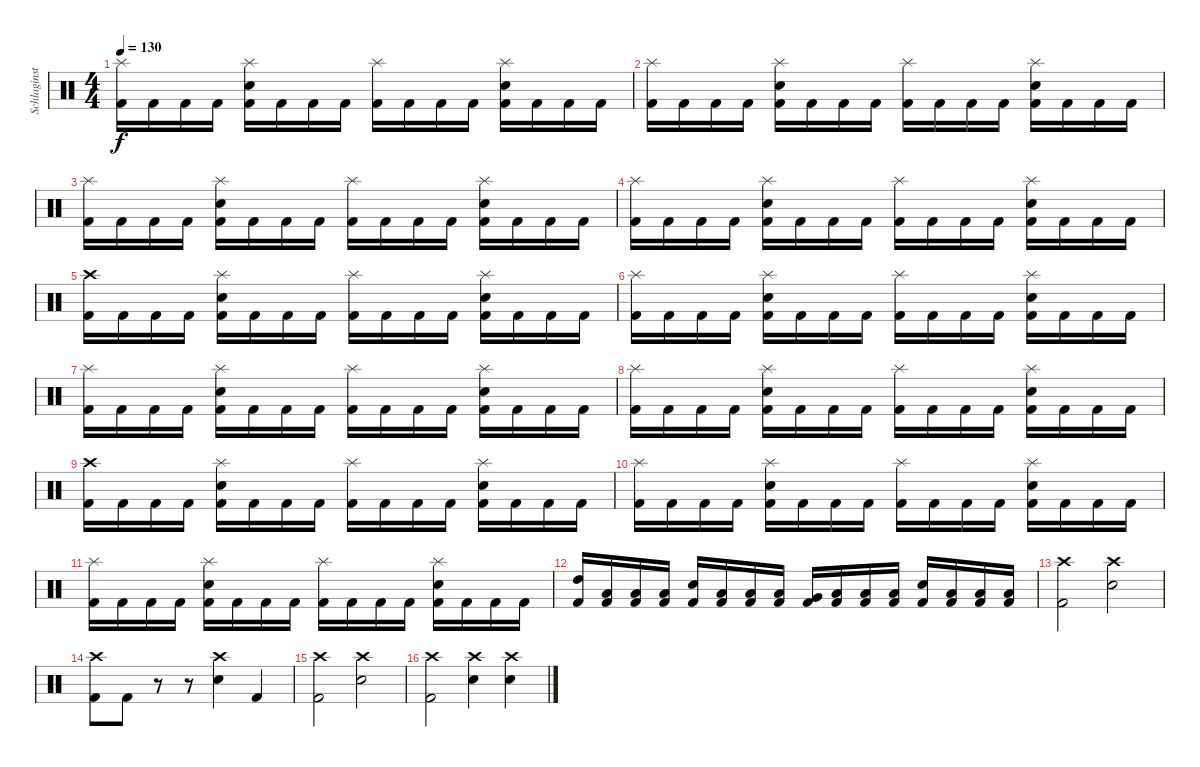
\track ("Schlaginstrumente - Auswahl" "Schlaginst") {instrument percussion}
\staff {score}
\articulation defaults
\ts (4 4)
\tempo 130
\clef neutral
\ks c
("Splash (hit)" "Kick (hit) 2").16{dy f} "Kick (hit) 2".16 "Kick (hit) 2".16 "Kick (hit) 2".16 ("Splash (hit)" "Snare (hit) 2" "Kick (hit) 2").16 "Kick (hit) 2".16 "Kick (hit) 2".16 "Kick (hit) 2".16 ("Splash (hit)" "Kick (hit) 2").16 "Kick (hit) 2".16 "Kick (hit) 2".16 "Kick (hit) 2".16 ("Splash (hit)" "Snare (hit) 2" "Kick (hit) 2").16 "Kick (hit) 2".16 "Kick (hit) 2".16 "Kick (hit) 2".16 |
("Splash (hit)" "Kick (hit) 2").16 "Kick (hit) 2".16 "Kick (hit) 2".16 "Kick (hit) 2".16 ("Splash (hit)" "Snare (hit) 2" "Kick (hit) 2").16 "Kick (hit) 2".16 "Kick (hit) 2".16 "Kick (hit) 2".16 ("Splash (hit)" "Kick (hit) 2").16 "Kick (hit) 2".16 "Kick (hit) 2".16 "Kick (hit) 2".16 ("Splash (hit)" "Snare (hit) 2" "Kick (hit) 2").16 "Kick (hit) 2".16 "Kick (hit) 2".16 "Kick (hit) 2".16 |
("Splash (hit)" "Kick (hit) 2").16 "Kick (hit) 2".16 "Kick (hit) 2".16 "Kick (hit) 2".16 ("Splash (hit)" "Snare (hit) 2" "Kick (hit) 2").16 "Kick (hit) 2".16 "Kick (hit) 2".16 "Kick (hit) 2".16 ("Splash (hit)" "Kick (hit) 2").16 "Kick (hit) 2".16 "Kick (hit) 2".16 "Kick (hit) 2".16 ("Splash (hit)" "Snare (hit) 2" "Kick (hit) 2").16 "Kick (hit) 2".16 "Kick (hit) 2".16 "Kick (hit) 2".16 |
("Splash (hit)" "Kick (hit) 2").16 "Kick (hit) 2".16 "Kick (hit) 2".16 "Kick (hit) 2".16 ("Splash (hit)" "Snare (hit) 2" "Kick (hit) 2").16 "Kick (hit) 2".16 "Kick (hit) 2".16 "Kick (hit) 2".16 ("Splash (hit)" "Kick (hit) 2").16 "Kick (hit) 2".16 "Kick (hit) 2".16 "Kick (hit) 2".16 ("Splash (hit)" "Snare (hit) 2" "Kick (hit) 2").16 "Kick (hit) 2".16 "Kick (hit) 2".16 "Kick (hit) 2".16 |
("Crash high (hit)" "Kick (hit) 2").16 "Kick (hit) 2".16 "Kick (hit) 2".16 "Kick (hit) 2".16 ("Splash (hit)" "Snare (hit) 2" "Kick (hit) 2").16 "Kick (hit) 2".16 "Kick (hit) 2".16 "Kick (hit) 2".16 ("Splash (hit)" "Kick (hit) 2").16 "Kick (hit) 2".16 "Kick (hit) 2".16 "Kick (hit) 2".16 ("Splash (hit)" "Snare (hit) 2" "Kick (hit) 2").16 "Kick (hit) 2".16 "Kick (hit) 2".16 "Kick (hit) 2".16 |
("Splash (hit)" "Kick (hit) 2").16 "Kick (hit) 2".16 "Kick (hit) 2".16 "Kick (hit) 2".16 ("Splash (hit)" "Snare (hit) 2" "Kick (hit) 2").16 "Kick (hit) 2".16 "Kick (hit) 2".16 "Kick (hit) 2".16 ("Splash (hit)" "Kick (hit) 2").16 "Kick (hit) 2".16 "Kick (hit) 2".16 "Kick (hit) 2".16 ("Splash (hit)" "Snare (hit) 2" "Kick (hit) 2").16 "Kick (hit) 2".16 "Kick (hit) 2".16 "Kick (hit) 2".16 |
("Splash (hit)" "Kick (hit) 2").16 "Kick (hit) 2".16 "Kick (hit) 2".16 "Kick (hit) 2".16 ("Splash (hit)" "Snare (hit) 2" "Kick (hit) 2").16 "Kick (hit) 2".16 "Kick (hit) 2".16 "Kick (hit) 2".16 ("Splash (hit)" "Kick (hit) 2").16 "Kick (hit) 2".16 "Kick (hit) 2".16 "Kick (hit) 2".16 ("Splash (hit)" "Snare (hit) 2" "Kick (hit) 2").16 "Kick (hit) 2".16 "Kick (hit) 2".16 "Kick (hit) 2".16 |
("Splash (hit)" "Kick (hit) 2").16 "Kick (hit) 2".16 "Kick (hit) 2".16 "Kick (hit) 2".16 ("Splash (hit)" "Snare (hit) 2" "Kick (hit) 2").16 "Kick (hit) 2".16 "Kick (hit) 2".16 "Kick (hit) 2".16 ("Splash (hit)" "Kick (hit) 2").16 "Kick (hit) 2".16 "Kick (hit) 2".16 "Kick (hit) 2".16 ("Splash (hit)" "Snare (hit) 2" "Kick (hit) 2").16 "Kick (hit) 2".16 "Kick (hit) 2".16 "Kick (hit) 2".16 |
("Crash high (hit)" "Kick (hit) 2").16 "Kick (hit) 2".16 "Kick (hit) 2".16 "Kick (hit) 2".16 ("Splash (hit)" "Snare (hit) 2" "Kick (hit) 2").16 "Kick (hit) 2".16 "Kick (hit) 2".16 "Kick (hit) 2".16 ("Splash (hit)" "Kick (hit) 2").16 "Kick (hit) 2".16 "Kick (hit) 2".16 "Kick (hit) 2".16 ("Splash (hit)" "Snare (hit) 2" "Kick (hit) 2").16 "Kick (hit) 2".16 "Kick (hit) 2".16 "Kick (hit) 2".16 |
("Splash (hit)" "Kick (hit) 2").16 "Kick (hit) 2".16 "Kick (hit) 2".16 "Kick (hit) 2".16 ("Splash (hit)" "Snare (hit) 2" "Kick (hit) 2").16 "Kick (hit) 2".16 "Kick (hit) 2".16 "Kick (hit) 2".16 ("Splash (hit)" "Kick (hit) 2").16 "Kick (hit) 2".16 "Kick (hit) 2".16 "Kick (hit) 2".16 ("Splash (hit)" "Snare (hit) 2" "Kick (hit) 2").16 "Kick (hit) 2".16 "Kick (hit) 2".16 "Kick (hit) 2".16 |
("Splash (hit)" "Kick (hit) 2").16 "Kick (hit) 2".16 "Kick (hit) 2".16 "Kick (hit) 2".16 ("Splash (hit)" "Snare (hit) 2" "Kick (hit) 2").16 "Kick (hit) 2".16 "Kick (hit) 2".16 "Kick (hit) 2".16 ("Splash (hit)" "Kick (hit) 2").16 "Kick (hit) 2".16 "Kick (hit) 2".16 "Kick (hit) 2".16 ("Splash (hit)" "Snare (hit) 2" "Kick (hit) 2").16 "Kick (hit) 2".16 "Kick (hit) 2".16 "Kick (hit) 2".16 |
("High Tom (hit)" "Kick (hit) 2").16 ("Low Floor Tom (hit)" "Kick (hit) 2").16 ("Low Floor Tom (hit)" "Kick (hit) 2").16 ("Low Floor Tom (hit)" "Kick (hit) 2").16 ("Snare (hit) 2" "Kick (hit) 2").16 ("Low Floor Tom (hit)" "Kick (hit) 2").16 ("Low Floor Tom (hit)" "Kick (hit) 2").16 ("Low Floor Tom (hit)" "Kick (hit) 2").16 ("Very Low Tom (hit)" "Kick (hit) 2").16 ("Low Floor Tom (hit)" "Kick (hit) 2").16 ("Low Floor Tom (hit)" "Kick (hit) 2").16 ("Low Floor Tom (hit)" "Kick (hit) 2").16 ("Snare (hit) 2" "Kick (hit) 2").16 ("Low Floor Tom (hit)" "Kick (hit) 2").16 ("Low Floor Tom (hit)" "Kick (hit) 2").16 ("Low Floor Tom (hit)" "Kick (hit) 2").16 |
("Crash high (hit)" "Kick (hit) 2").2 ("Crash high (hit)" "Snare (hit) 2").2 |
("Crash high (hit)" "Kick (hit) 2").8 "Kick (hit) 2".8 r.8 r.8 ("Crash high (hit)" "Snare (hit) 2").4 "Kick (hit) 2".4 |
("Crash high (hit)" "Kick (hit) 2").2 ("Crash high (hit)" "Snare (hit) 2").2 |
("Crash high (hit)" "Kick (hit) 2").2 ("Crash high (hit)" "Snare (hit) 2").4 ("Crash high (hit)" "Snare (hit) 2").4
